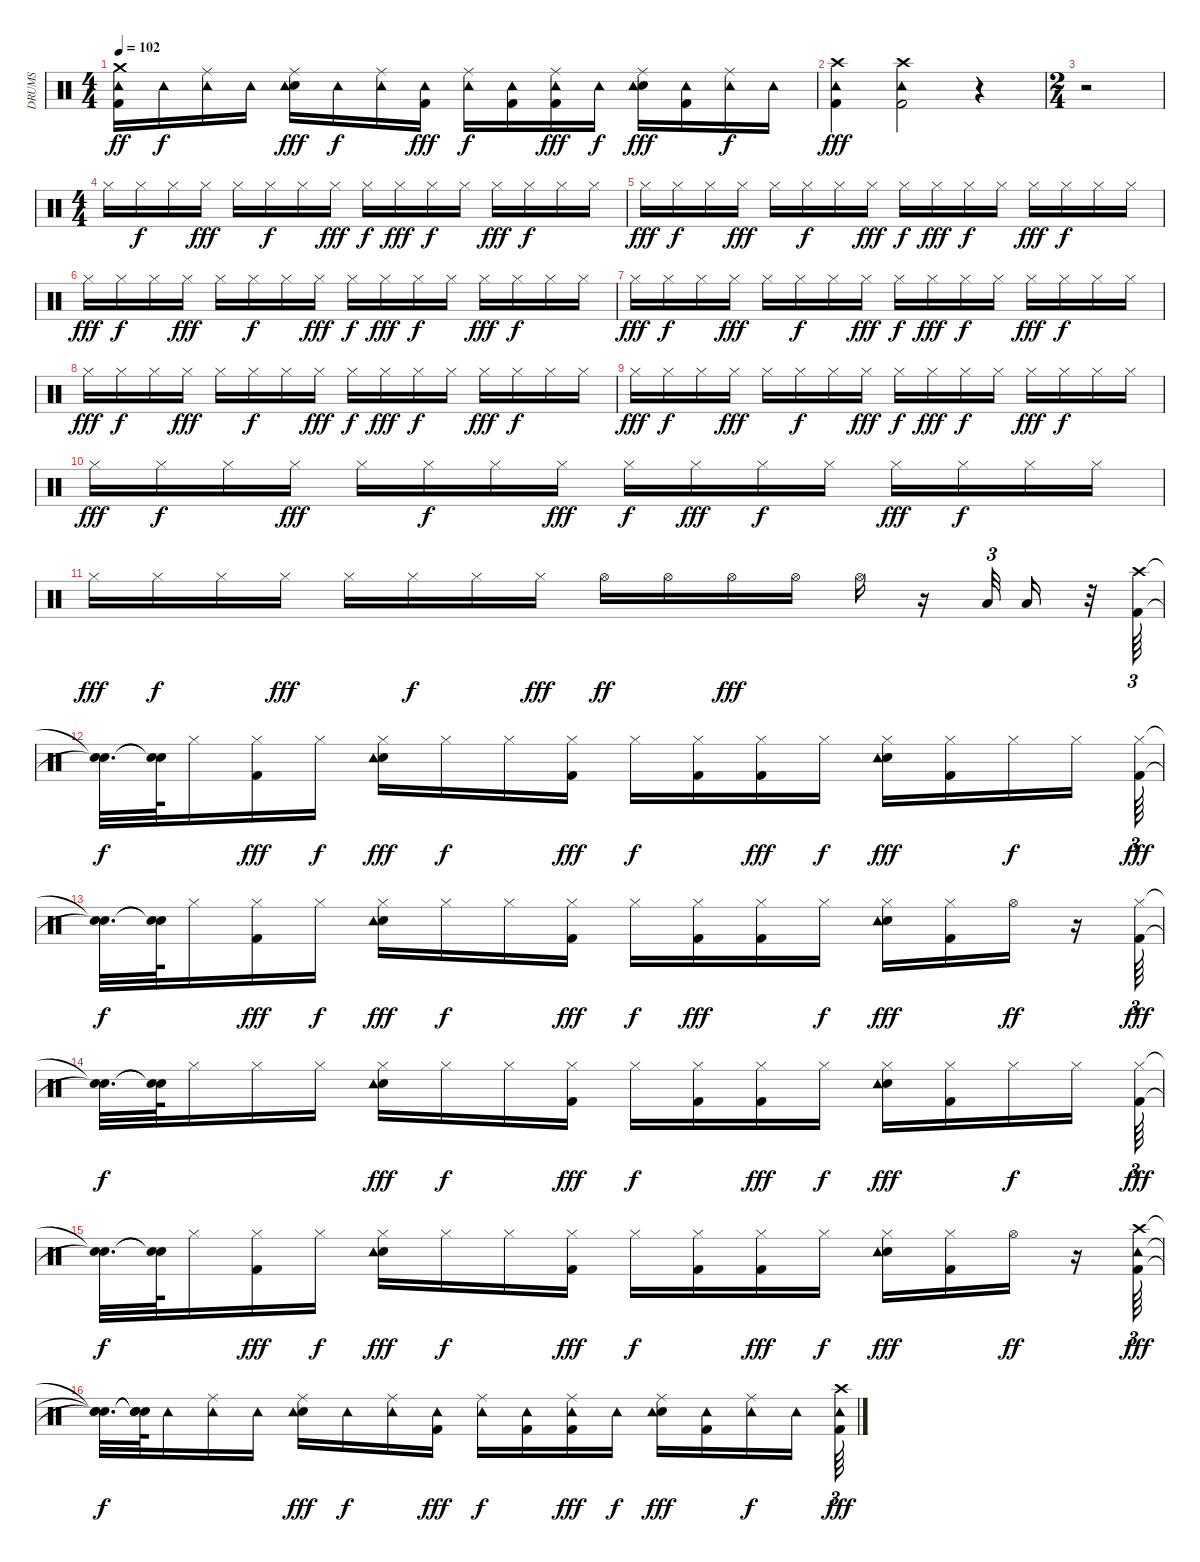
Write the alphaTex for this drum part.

\track ("DRUMS" "DRUMS") {instrument percussion}
\staff {score}
\articulation defaults
\ts (4 4)
\tempo 102
\clef neutral
\ks c
("Kick (hit) 2" "Crash medium (hit)" "Tambourine (hit)").16{dy ff} "Tambourine (hit)".16{dy f} ("Ride (middle)" "Tambourine (hit)").16 "Tambourine (hit)".16 ("Snare (hit) 2" "Ride (middle)" "Tambourine (hit)").16{dy fff} "Tambourine (hit)".16{dy f} ("Ride (middle)" "Tambourine (hit)").16 ("Kick (hit) 2" "Tambourine (hit)").16{dy fff} ("Ride (middle)" "Tambourine (hit)").16{dy f} ("Kick (hit) 2" "Tambourine (hit)").16 ("Ride (middle)" "Kick (hit) 2" "Tambourine (hit)").16{dy fff} "Tambourine (hit)".16{dy f} ("Snare (hit) 2" "Ride (middle)" "Tambourine (hit)").16{dy fff} ("Kick (hit) 2" "Tambourine (hit)").16 ("Ride (middle)" "Tambourine (hit)").16{dy f} "Tambourine (hit)".16 |
("Crash high (hit)" "Kick (hit) 2" "Tambourine (hit)").4{dy fff} ("Crash high (hit)" "Kick (hit) 2" "Tambourine (hit)").2{volume 16} r.4 |
\ts (2 4)
r.2 |
\ts (4 4)
"Hi-Hat (closed)".16 "Hi-Hat (closed)".16{dy f} "Hi-Hat (closed)".16 "Hi-Hat (closed)".16{dy fff} "Hi-Hat (closed)".16 "Hi-Hat (closed)".16{dy f} "Hi-Hat (closed)".16 "Hi-Hat (closed)".16{dy fff} "Hi-Hat (closed)".16{dy f} "Hi-Hat (closed)".16{dy fff} "Hi-Hat (closed)".16{dy f} "Hi-Hat (closed)".16 "Hi-Hat (closed)".16{dy fff} "Hi-Hat (closed)".16{dy f} "Hi-Hat (closed)".16 "Hi-Hat (closed)".16 |
"Hi-Hat (closed)".16{dy fff} "Hi-Hat (closed)".16{dy f} "Hi-Hat (closed)".16 "Hi-Hat (closed)".16{dy fff} "Hi-Hat (closed)".16 "Hi-Hat (closed)".16{dy f} "Hi-Hat (closed)".16 "Hi-Hat (closed)".16{dy fff} "Hi-Hat (closed)".16{dy f} "Hi-Hat (closed)".16{dy fff} "Hi-Hat (closed)".16{dy f} "Hi-Hat (closed)".16 "Hi-Hat (closed)".16{dy fff} "Hi-Hat (closed)".16{dy f} "Hi-Hat (closed)".16 "Hi-Hat (closed)".16 |
"Hi-Hat (closed)".16{dy fff} "Hi-Hat (closed)".16{dy f} "Hi-Hat (closed)".16 "Hi-Hat (closed)".16{dy fff} "Hi-Hat (closed)".16 "Hi-Hat (closed)".16{dy f} "Hi-Hat (closed)".16 "Hi-Hat (closed)".16{dy fff} "Hi-Hat (closed)".16{dy f} "Hi-Hat (closed)".16{dy fff} "Hi-Hat (closed)".16{dy f} "Hi-Hat (closed)".16 "Hi-Hat (closed)".16{dy fff} "Hi-Hat (closed)".16{dy f} "Hi-Hat (closed)".16 "Hi-Hat (closed)".16 |
"Hi-Hat (closed)".16{dy fff} "Hi-Hat (closed)".16{dy f} "Hi-Hat (closed)".16 "Hi-Hat (closed)".16{dy fff} "Hi-Hat (closed)".16 "Hi-Hat (closed)".16{dy f} "Hi-Hat (closed)".16 "Hi-Hat (closed)".16{dy fff} "Hi-Hat (closed)".16{dy f} "Hi-Hat (closed)".16{dy fff} "Hi-Hat (closed)".16{dy f} "Hi-Hat (closed)".16 "Hi-Hat (closed)".16{dy fff} "Hi-Hat (closed)".16{dy f} "Hi-Hat (closed)".16 "Hi-Hat (closed)".16 |
"Hi-Hat (closed)".16{dy fff} "Hi-Hat (closed)".16{dy f} "Hi-Hat (closed)".16 "Hi-Hat (closed)".16{dy fff} "Hi-Hat (closed)".16 "Hi-Hat (closed)".16{dy f} "Hi-Hat (closed)".16 "Hi-Hat (closed)".16{dy fff} "Hi-Hat (closed)".16{dy f} "Hi-Hat (closed)".16{dy fff} "Hi-Hat (closed)".16{dy f} "Hi-Hat (closed)".16 "Hi-Hat (closed)".16{dy fff} "Hi-Hat (closed)".16{dy f} "Hi-Hat (closed)".16 "Hi-Hat (closed)".16 |
"Hi-Hat (closed)".16{dy fff} "Hi-Hat (closed)".16{dy f} "Hi-Hat (closed)".16 "Hi-Hat (closed)".16{dy fff} "Hi-Hat (closed)".16 "Hi-Hat (closed)".16{dy f} "Hi-Hat (closed)".16 "Hi-Hat (closed)".16{dy fff} "Hi-Hat (closed)".16{dy f} "Hi-Hat (closed)".16{dy fff} "Hi-Hat (closed)".16{dy f} "Hi-Hat (closed)".16 "Hi-Hat (closed)".16{dy fff} "Hi-Hat (closed)".16{dy f} "Hi-Hat (closed)".16 "Hi-Hat (closed)".16 |
"Hi-Hat (closed)".16{dy fff} "Hi-Hat (closed)".16{dy f} "Hi-Hat (closed)".16 "Hi-Hat (closed)".16{dy fff} "Hi-Hat (closed)".16 "Hi-Hat (closed)".16{dy f} "Hi-Hat (closed)".16 "Hi-Hat (closed)".16{dy fff} "Hi-Hat (closed)".16{dy f} "Hi-Hat (closed)".16{dy fff} "Hi-Hat (closed)".16{dy f} "Hi-Hat (closed)".16 "Hi-Hat (closed)".16{dy fff} "Hi-Hat (closed)".16{dy f} "Hi-Hat (closed)".16 "Hi-Hat (closed)".16 |
"Hi-Hat (closed)".16{dy fff} "Hi-Hat (closed)".16{dy f} "Hi-Hat (closed)".16 "Hi-Hat (closed)".16{dy fff} "Hi-Hat (closed)".16 "Hi-Hat (closed)".16{dy f} "Hi-Hat (closed)".16 "Hi-Hat (closed)".16{dy fff} "Hi-Hat (open)".16{dy ff} "Hi-Hat (open)".16 "Hi-Hat (open)".16{dy fff} "Hi-Hat (open)".16 "Hi-Hat (open)".16 r.16 "Low Floor Tom (hit)".32{tu (3 2)} "Low Floor Tom (hit)".16 r.32 ("Crash high (hit)" "Kick (hit) 2").64{tu (3 2)} |
("Snare (hit)"{t} "Snare (hit)"{t}).32{d dy f} ("Snare (hit)"{t} "Snare (hit)"{t}).64 "Hi-Hat (closed)".16 ("Kick (hit) 2" "Hi-Hat (closed)").16{dy fff} "Hi-Hat (closed)".16{dy f} ("Hi-Hat (closed)" "Snare (hit) 2" "Tambourine (hit)").16{dy fff} "Hi-Hat (closed)".16{dy f} "Hi-Hat (closed)".16 ("Hi-Hat (closed)" "Kick (hit) 2").16{dy fff} "Hi-Hat (closed)".16{dy f} ("Kick (hit) 2" "Hi-Hat (closed)").16 ("Hi-Hat (closed)" "Kick (hit) 2").16{dy fff} "Hi-Hat (closed)".16{dy f} ("Hi-Hat (closed)" "Snare (hit) 2" "Tambourine (hit)").16{dy fff} ("Hi-Hat (closed)" "Kick (hit) 2").16 "Hi-Hat (closed)".16{dy f} "Hi-Hat (closed)".16 ("Hi-Hat (closed)" "Kick (hit) 2").64{tu (3 2) dy fff} |
("Snare (hit)"{t} "Snare (hit)"{t}).32{d dy f} ("Snare (hit)"{t} "Snare (hit)"{t}).64 "Hi-Hat (closed)".16 ("Kick (hit) 2" "Hi-Hat (closed)").16{dy fff} "Hi-Hat (closed)".16{dy f} ("Hi-Hat (closed)" "Snare (hit) 2" "Tambourine (hit)").16{dy fff} "Hi-Hat (closed)".16{dy f} "Hi-Hat (closed)".16 ("Hi-Hat (closed)" "Kick (hit) 2").16{dy fff} "Hi-Hat (closed)".16{dy f} ("Kick (hit) 2" "Hi-Hat (closed)").16{dy fff} ("Hi-Hat (closed)" "Kick (hit) 2").16 "Hi-Hat (closed)".16{dy f} ("Hi-Hat (closed)" "Snare (hit) 2" "Tambourine (hit)").16{dy fff} ("Hi-Hat (closed)" "Kick (hit) 2").16 "Hi-Hat (open)".16{dy ff} r.16 ("Hi-Hat (closed)" "Kick (hit) 2").64{tu (3 2) dy fff} |
("Snare (hit)"{t} "Snare (hit)"{t}).32{d dy f} ("Snare (hit)"{t} "Snare (hit)"{t}).64 "Hi-Hat (closed)".16 "Hi-Hat (closed)".16 "Hi-Hat (closed)".16 ("Hi-Hat (closed)" "Snare (hit) 2" "Tambourine (hit)").16{dy fff} "Hi-Hat (closed)".16{dy f} "Hi-Hat (closed)".16 ("Hi-Hat (closed)" "Kick (hit) 2").16{dy fff} "Hi-Hat (closed)".16{dy f} ("Kick (hit) 2" "Hi-Hat (closed)").16 ("Hi-Hat (closed)" "Kick (hit) 2").16{dy fff} "Hi-Hat (closed)".16{dy f} ("Hi-Hat (closed)" "Snare (hit) 2" "Tambourine (hit)").16{dy fff} ("Hi-Hat (closed)" "Kick (hit) 2").16 "Hi-Hat (closed)".16{dy f} "Hi-Hat (closed)".16 ("Hi-Hat (closed)" "Kick (hit) 2").64{tu (3 2) dy fff} |
("Snare (hit)"{t} "Snare (hit)"{t}).32{d dy f} ("Snare (hit)"{t} "Snare (hit)"{t}).64 "Hi-Hat (closed)".16 ("Kick (hit) 2" "Hi-Hat (closed)").16{dy fff} "Hi-Hat (closed)".16{dy f} ("Hi-Hat (closed)" "Snare (hit) 2" "Tambourine (hit)").16{dy fff} "Hi-Hat (closed)".16{dy f} "Hi-Hat (closed)".16 ("Hi-Hat (closed)" "Kick (hit) 2").16{dy fff} "Hi-Hat (closed)".16{dy f} ("Kick (hit) 2" "Hi-Hat (closed)").16 ("Hi-Hat (closed)" "Kick (hit) 2").16{dy fff} "Hi-Hat (closed)".16{dy f} ("Hi-Hat (closed)" "Snare (hit) 2" "Tambourine (hit)").16{dy fff} ("Hi-Hat (closed)" "Kick (hit) 2").16 "Hi-Hat (open)".16{dy ff} r.16 ("Kick (hit) 2" "Crash high (hit)" "Tambourine (hit)").64{tu (3 2) dy fff} |
("Snare (hit)"{t} "Snare (hit)"{t} "Snare (hit)"{t}).32{d dy f} ("Snare (hit)"{t} "Snare (hit)"{t} "Snare (hit)"{t}).64 "Tambourine (hit)".16 ("Ride (middle)" "Tambourine (hit)").16 "Tambourine (hit)".16 ("Snare (hit) 2" "Ride (middle)" "Tambourine (hit)").16{dy fff} "Tambourine (hit)".16{dy f} ("Ride (middle)" "Tambourine (hit)").16 ("Kick (hit) 2" "Tambourine (hit)").16{dy fff} ("Ride (middle)" "Tambourine (hit)").16{dy f} ("Kick (hit) 2" "Tambourine (hit)").16 ("Ride (middle)" "Kick (hit) 2" "Tambourine (hit)").16{dy fff} "Tambourine (hit)".16{dy f} ("Snare (hit) 2" "Ride (middle)" "Tambourine (hit)").16{dy fff} ("Kick (hit) 2" "Tambourine (hit)").16 ("Ride (middle)" "Tambourine (hit)").16{dy f} "Tambourine (hit)".16 ("Kick (hit) 2" "Crash high (hit)" "Tambourine (hit)").64{tu (3 2) dy fff}
